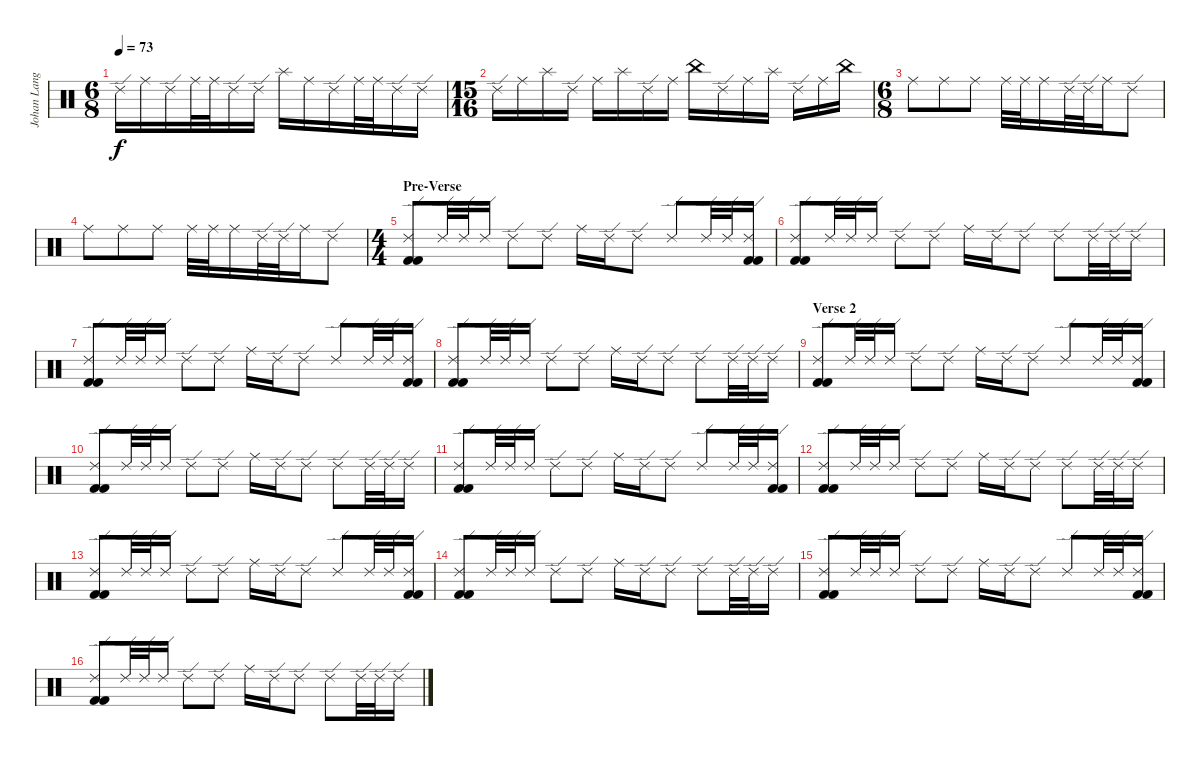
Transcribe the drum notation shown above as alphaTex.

\track ("Johan Langell" "Johan Lang") {instrument percussion}
\staff {score}
\articulation defaults
\ts (6 8)
\tempo 73
\clef neutral
\ks c "Ride (edge) 2".16{dy f} "Ride (middle)".16 "Ride (edge) 2".16 "Ride (middle)".32 "Ride (middle)".32 "Ride (edge) 2".16 "Ride (edge) 2".16 "Splash (hit)".16 "Ride (middle)".16 "Ride (edge) 2".16 "Ride (middle)".32 "Ride (middle)".32 "Ride (edge) 2".16 "Ride (edge) 2".16
|
\ts (15 16)
"Ride (edge) 2".16 "Ride (middle)".16 "Splash (hit)".16 "Ride (edge) 2".16 "Ride (middle)".16 "Splash (hit)".16 "Ride (edge) 2".16 "Ride (middle)".16 "China (hit)".16 "Ride (edge) 2".16 "Ride (middle)".16 "Splash (hit)".16 "Ride (edge) 2".16 "Ride (middle)".16 "China (hit)".16 |
\ts (6 8)
"Ride (middle)".8 "Ride (middle)".8 "Ride (middle)".8 "Ride (middle)".32 "Ride (middle)".32 "Ride (middle)".16 "Ride (edge) 2".32 "Ride (edge) 2".32 "Ride (middle)".16 "Ride (edge) 2".8 |
"Ride (middle)".8 "Ride (middle)".8 "Ride (middle)".8 "Ride (middle)".32 "Ride (middle)".32 "Ride (middle)".16 "Ride (edge) 2".32 "Ride (edge) 2".32 "Ride (middle)".16 "Ride (edge) 2".8 |
\ts (4 4)
\section ("" "Pre-Verse")
("Ride (edge) 2" "Kick (hit) 2" "Kick (hit) 2").8 "Ride (edge) 2".32 "Ride (edge) 2".32 "Ride (edge) 2".16 "Ride (edge) 2".8 "Ride (edge) 2".8 "Ride (middle)".16 "Ride (edge) 2".16 "Ride (edge) 2".8 "Ride (edge) 2".8 "Ride (edge) 2".32 "Ride (edge) 2".32 ("Ride (edge) 2" "Kick (hit) 2" "Kick (hit) 2").16 |
("Ride (edge) 2" "Kick (hit) 2" "Kick (hit) 2").8 "Ride (edge) 2".32 "Ride (edge) 2".32 "Ride (edge) 2".16 "Ride (edge) 2".8 "Ride (edge) 2".8 "Ride (middle)".16 "Ride (edge) 2".16 "Ride (edge) 2".8 "Ride (edge) 2".8 "Ride (edge) 2".32 "Ride (edge) 2".32 "Ride (edge) 2".16 |
("Ride (edge) 2" "Kick (hit) 2" "Kick (hit) 2").8 "Ride (edge) 2".32 "Ride (edge) 2".32 "Ride (edge) 2".16 "Ride (edge) 2".8 "Ride (edge) 2".8 "Ride (middle)".16 "Ride (edge) 2".16 "Ride (edge) 2".8 "Ride (edge) 2".8 "Ride (edge) 2".32 "Ride (edge) 2".32 ("Ride (edge) 2" "Kick (hit) 2" "Kick (hit) 2").16 |
("Ride (edge) 2" "Kick (hit) 2" "Kick (hit) 2").8 "Ride (edge) 2".32 "Ride (edge) 2".32 "Ride (edge) 2".16 "Ride (edge) 2".8 "Ride (edge) 2".8 "Ride (middle)".16 "Ride (edge) 2".16 "Ride (edge) 2".8 "Ride (edge) 2".8 "Ride (edge) 2".32 "Ride (edge) 2".32 "Ride (edge) 2".16 |
\section ("" "Verse 2")
("Ride (edge) 2" "Kick (hit) 2" "Kick (hit) 2").8 "Ride (edge) 2".32 "Ride (edge) 2".32 "Ride (edge) 2".16 "Ride (edge) 2".8 "Ride (edge) 2".8 "Ride (middle)".16 "Ride (edge) 2".16 "Ride (edge) 2".8 "Ride (edge) 2".8 "Ride (edge) 2".32 "Ride (edge) 2".32 ("Ride (edge) 2" "Kick (hit) 2" "Kick (hit) 2").16 |
("Ride (edge) 2" "Kick (hit) 2" "Kick (hit) 2").8 "Ride (edge) 2".32 "Ride (edge) 2".32 "Ride (edge) 2".16 "Ride (edge) 2".8 "Ride (edge) 2".8 "Ride (middle)".16 "Ride (edge) 2".16 "Ride (edge) 2".8 "Ride (edge) 2".8 "Ride (edge) 2".32 "Ride (edge) 2".32 "Ride (edge) 2".16 |
("Ride (edge) 2" "Kick (hit) 2" "Kick (hit) 2").8 "Ride (edge) 2".32 "Ride (edge) 2".32 "Ride (edge) 2".16 "Ride (edge) 2".8 "Ride (edge) 2".8 "Ride (middle)".16 "Ride (edge) 2".16 "Ride (edge) 2".8 "Ride (edge) 2".8 "Ride (edge) 2".32 "Ride (edge) 2".32 ("Ride (edge) 2" "Kick (hit) 2" "Kick (hit) 2").16 |
("Ride (edge) 2" "Kick (hit) 2" "Kick (hit) 2").8 "Ride (edge) 2".32 "Ride (edge) 2".32 "Ride (edge) 2".16 "Ride (edge) 2".8 "Ride (edge) 2".8 "Ride (middle)".16 "Ride (edge) 2".16 "Ride (edge) 2".8 "Ride (edge) 2".8 "Ride (edge) 2".32 "Ride (edge) 2".32 "Ride (edge) 2".16 |
("Ride (edge) 2" "Kick (hit) 2" "Kick (hit) 2").8 "Ride (edge) 2".32 "Ride (edge) 2".32 "Ride (edge) 2".16 "Ride (edge) 2".8 "Ride (edge) 2".8 "Ride (middle)".16 "Ride (edge) 2".16 "Ride (edge) 2".8 "Ride (edge) 2".8 "Ride (edge) 2".32 "Ride (edge) 2".32 ("Ride (edge) 2" "Kick (hit) 2" "Kick (hit) 2").16 |
("Ride (edge) 2" "Kick (hit) 2" "Kick (hit) 2").8 "Ride (edge) 2".32 "Ride (edge) 2".32 "Ride (edge) 2".16 "Ride (edge) 2".8 "Ride (edge) 2".8 "Ride (middle)".16 "Ride (edge) 2".16 "Ride (edge) 2".8 "Ride (edge) 2".8 "Ride (edge) 2".32 "Ride (edge) 2".32 "Ride (edge) 2".16 |
("Ride (edge) 2" "Kick (hit) 2" "Kick (hit) 2").8 "Ride (edge) 2".32 "Ride (edge) 2".32 "Ride (edge) 2".16 "Ride (edge) 2".8 "Ride (edge) 2".8 "Ride (middle)".16 "Ride (edge) 2".16 "Ride (edge) 2".8 "Ride (edge) 2".8 "Ride (edge) 2".32 "Ride (edge) 2".32 ("Ride (edge) 2" "Kick (hit) 2" "Kick (hit) 2").16 |
("Ride (edge) 2" "Kick (hit) 2" "Kick (hit) 2").8 "Ride (edge) 2".32 "Ride (edge) 2".32 "Ride (edge) 2".16 "Ride (edge) 2".8 "Ride (edge) 2".8 "Ride (middle)".16 "Ride (edge) 2".16 "Ride (edge) 2".8 "Ride (edge) 2".8 "Ride (edge) 2".32 "Ride (edge) 2".32 "Ride (edge) 2".16
